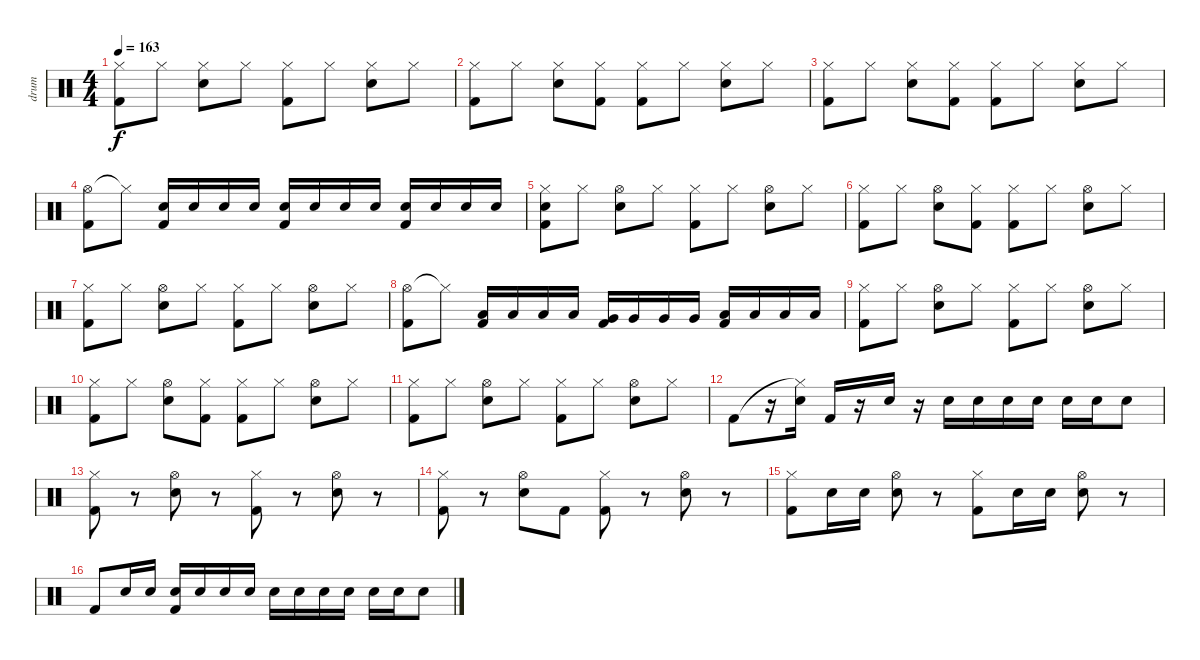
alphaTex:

\track ("drum" "drum") {instrument percussion}
\staff {score}
\articulation defaults
\ts (4 4)
\tempo 163
\clef neutral
\ks c
("Hi-Hat (closed)" "Kick (hit) 2").8{dy f} "Hi-Hat (closed)".8 ("Hi-Hat (closed)" "Electric Snare (hit)").8 "Hi-Hat (closed)".8 ("Hi-Hat (closed)" "Kick (hit) 2").8 "Hi-Hat (closed)".8 ("Hi-Hat (closed)" "Electric Snare (hit)").8 "Hi-Hat (closed)".8 |
("Hi-Hat (closed)" "Kick (hit) 2").8 "Hi-Hat (closed)".8 ("Hi-Hat (closed)" "Electric Snare (hit)").8 ("Hi-Hat (closed)" "Kick (hit) 2").8 ("Hi-Hat (closed)" "Kick (hit) 2").8 "Hi-Hat (closed)".8 ("Hi-Hat (closed)" "Electric Snare (hit)").8 "Hi-Hat (closed)".8 |
("Hi-Hat (closed)" "Kick (hit) 2").8 "Hi-Hat (closed)".8 ("Hi-Hat (closed)" "Electric Snare (hit)").8 ("Hi-Hat (closed)" "Kick (hit) 2").8 ("Hi-Hat (closed)" "Kick (hit) 2").8 "Hi-Hat (closed)".8 ("Hi-Hat (closed)" "Electric Snare (hit)").8 "Hi-Hat (closed)".8 |
("Hi-Hat (open)" "Kick (hit) 2").8 "Hi-Hat (closed)"{t}.8 ("Electric Snare (hit)" "Kick (hit) 2").16 "Electric Snare (hit)".16 "Electric Snare (hit)".16 "Electric Snare (hit)".16 ("Electric Snare (hit)" "Kick (hit) 2").16 "Electric Snare (hit)".16 "Electric Snare (hit)".16 "Electric Snare (hit)".16 ("Electric Snare (hit)" "Kick (hit) 2").16 "Electric Snare (hit)".16 "Electric Snare (hit)".16 "Electric Snare (hit)".16 |
("Hi-Hat (closed)" "Electric Snare (hit)" "Kick (hit) 2").8 "Hi-Hat (closed)".8 ("Hi-Hat (open)" "Electric Snare (hit)").8 "Hi-Hat (closed)".8 ("Hi-Hat (closed)" "Kick (hit) 2").8 "Hi-Hat (closed)".8 ("Hi-Hat (open)" "Electric Snare (hit)").8 "Hi-Hat (closed)".8 |
("Hi-Hat (closed)" "Kick (hit) 2").8 "Hi-Hat (closed)".8 ("Hi-Hat (open)" "Electric Snare (hit)").8 ("Hi-Hat (closed)" "Kick (hit) 2").8 ("Hi-Hat (closed)" "Kick (hit) 2").8 "Hi-Hat (closed)".8 ("Hi-Hat (open)" "Electric Snare (hit)").8 "Hi-Hat (closed)".8 |
("Hi-Hat (closed)" "Kick (hit) 2").8 "Hi-Hat (closed)".8 ("Hi-Hat (open)" "Electric Snare (hit)").8 "Hi-Hat (closed)".8 ("Hi-Hat (closed)" "Kick (hit) 2").8 "Hi-Hat (closed)".8 ("Hi-Hat (open)" "Electric Snare (hit)").8 "Hi-Hat (closed)".8 |
("Hi-Hat (open)" "Kick (hit) 2").8 "Hi-Hat (closed)"{t}.8 ("Low Tom (hit)" "Kick (hit) 2").16 "Low Tom (hit)".16 "Low Tom (hit)".16 "Low Tom (hit)".16 ("Very Low Tom (hit)" "Kick (hit) 2").16 "Very Low Tom (hit)".16 "Very Low Tom (hit)".16 "Very Low Tom (hit)".16 ("Low Floor Tom (hit)" "Kick (hit) 2").16 "Low Floor Tom (hit)".16 "Low Floor Tom (hit)".16 "Low Floor Tom (hit)".16 |
("Hi-Hat (closed)" "Kick (hit) 2").8 "Hi-Hat (closed)".8 ("Hi-Hat (open)" "Electric Snare (hit)").8 "Hi-Hat (closed)".8 ("Hi-Hat (closed)" "Kick (hit) 2").8 "Hi-Hat (closed)".8 ("Hi-Hat (open)" "Electric Snare (hit)").8 "Hi-Hat (closed)".8 |
("Hi-Hat (closed)" "Kick (hit) 2").8 "Hi-Hat (closed)".8 ("Hi-Hat (open)" "Electric Snare (hit)").8 ("Hi-Hat (closed)" "Kick (hit) 2").8 ("Hi-Hat (closed)" "Kick (hit) 2").8 "Hi-Hat (closed)".8 ("Hi-Hat (open)" "Electric Snare (hit)").8 "Hi-Hat (closed)".8 |
("Hi-Hat (closed)" "Kick (hit) 2").8 "Hi-Hat (closed)".8 ("Hi-Hat (open)" "Electric Snare (hit)").8 "Hi-Hat (closed)".8 ("Hi-Hat (closed)" "Kick (hit) 2").8 "Hi-Hat (closed)".8 ("Hi-Hat (open)" "Electric Snare (hit)").8 "Hi-Hat (closed)".8 |
"Kick (hit) 2".8 r.16 ("Hi-Hat (closed)"{t} "Electric Snare (hit)").16 "Kick (hit) 2".16 r.16 "Electric Snare (hit)".16 r.16 "Electric Snare (hit)".16 "Electric Snare (hit)".16 "Electric Snare (hit)".16 "Electric Snare (hit)".16 "Electric Snare (hit)".16 "Electric Snare (hit)".16 "Electric Snare (hit)".8 |
("Hi-Hat (closed)" "Kick (hit) 2").8 r.8 ("Hi-Hat (open)" "Electric Snare (hit)").8 r.8 ("Hi-Hat (closed)" "Kick (hit) 2").8 r.8 ("Hi-Hat (open)" "Electric Snare (hit)").8 r.8 |
("Hi-Hat (closed)" "Kick (hit) 2").8 r.8 ("Hi-Hat (open)" "Electric Snare (hit)").8 "Kick (hit) 2".8 ("Hi-Hat (closed)" "Kick (hit) 2").8 r.8 ("Hi-Hat (open)" "Electric Snare (hit)").8 r.8 |
("Hi-Hat (closed)" "Kick (hit) 2").8 "Electric Snare (hit)".16 "Electric Snare (hit)".16 ("Hi-Hat (open)" "Electric Snare (hit)").8 r.8 ("Hi-Hat (closed)" "Kick (hit) 2").8 "Electric Snare (hit)".16 "Electric Snare (hit)".16 ("Hi-Hat (open)" "Electric Snare (hit)").8 r.8 |
"Kick (hit) 2".8 "Electric Snare (hit)".16 "Electric Snare (hit)".16 ("Electric Snare (hit)" "Kick (hit) 2").16 "Electric Snare (hit)".16 "Electric Snare (hit)".16 "Electric Snare (hit)".16 "Electric Snare (hit)".16 "Electric Snare (hit)".16 "Electric Snare (hit)".16 "Electric Snare (hit)".16 "Electric Snare (hit)".16 "Electric Snare (hit)".16 "Electric Snare (hit)".8
